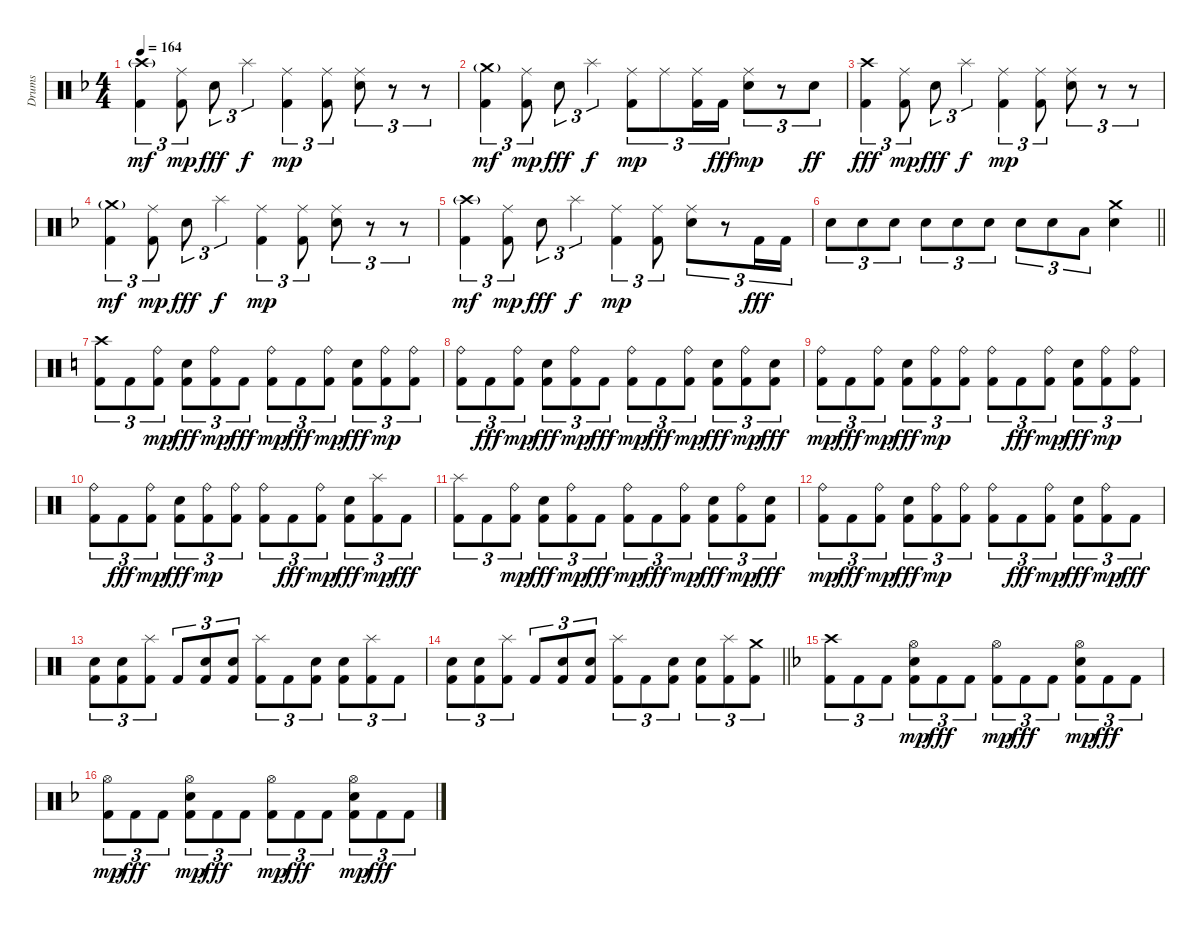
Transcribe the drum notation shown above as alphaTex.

\track ("Drums" "Drums") {instrument percussion}
\staff {score}
\articulation defaults
\ts (4 4)
\tempo 164
\clef neutral
\ks f
("Kick (hit) 2" "Crash high (hit)"{g}).4{tu (3 2) dy mf} ("Kick (hit) 2" "Ride (middle)").8{tu (3 2) dy mp} "Electric Snare (hit)".8{tu (3 2) dy fff} "Splash (hit)".4{tu (3 2) dy f} ("Kick (hit) 2" "Ride (middle)").4{tu (3 2) dy mp} ("Kick (hit) 2" "Ride (middle)").8{tu (3 2)} ("Electric Snare (hit)" "Ride (middle)").8{tu (3 2)} r.8{tu (3 2)} r.8{tu (3 2)} |
("Kick (hit) 2" "Crash medium (hit)"{g}).4{tu (3 2) dy mf} ("Kick (hit) 2" "Ride (middle)").8{tu (3 2) dy mp} "Electric Snare (hit)".8{tu (3 2) dy fff} "Splash (hit)".4{tu (3 2) dy f} ("Kick (hit) 2" "Ride (middle)").8{tu (3 2) dy mp} "Ride (middle)".8{tu (3 2)} ("Kick (hit) 2" "Ride (middle)").16{tu (3 2)} "Kick (hit) 2".16{tu (3 2) dy fff} ("Electric Snare (hit)" "Ride (middle)").8{tu (3 2) dy mp} r.8{tu (3 2)} "Electric Snare (hit)".8{tu (3 2) dy ff} |
("Kick (hit) 2" "Crash high (hit)").4{tu (3 2) dy fff} ("Kick (hit) 2" "Ride (middle)").8{tu (3 2) dy mp} "Electric Snare (hit)".8{tu (3 2) dy fff} "Splash (hit)".4{tu (3 2) dy f} ("Kick (hit) 2" "Ride (middle)").4{tu (3 2) dy mp} ("Kick (hit) 2" "Ride (middle)").8{tu (3 2)} ("Electric Snare (hit)" "Ride (middle)").8{tu (3 2)} r.8{tu (3 2)} r.8{tu (3 2)} |
("Kick (hit) 2" "Crash medium (hit)"{g}).4{tu (3 2) dy mf} ("Kick (hit) 2" "Ride (middle)").8{tu (3 2) dy mp} "Electric Snare (hit)".8{tu (3 2) dy fff} "Splash (hit)".4{tu (3 2) dy f} ("Kick (hit) 2" "Ride (middle)").4{tu (3 2) dy mp} ("Kick (hit) 2" "Ride (middle)").8{tu (3 2)} ("Electric Snare (hit)" "Ride (middle)").8{tu (3 2)} r.8{tu (3 2)} r.8{tu (3 2)} |
("Kick (hit) 2" "Crash high (hit)"{g}).4{tu (3 2) dy mf} ("Kick (hit) 2" "Ride (middle)").8{tu (3 2) dy mp} "Electric Snare (hit)".8{tu (3 2) dy fff} "Splash (hit)".4{tu (3 2) dy f} ("Kick (hit) 2" "Ride (middle)").4{tu (3 2) dy mp} ("Kick (hit) 2" "Ride (middle)").8{tu (3 2)} ("Electric Snare (hit)" "Ride (middle)").8{tu (3 2)} r.8{tu (3 2)} "Kick (hit) 2".16{tu (3 2) dy fff} "Kick (hit) 2".16{tu (3 2)} |
\barLineRight lightlight "Electric Snare (hit)".8{tu (3 2)} "Electric Snare (hit)".8{tu (3 2)} "Electric Snare (hit)".8{tu (3 2)} "Electric Snare (hit)".8{tu (3 2)} "Electric Snare (hit)".8{tu (3 2)} "Electric Snare (hit)".8{tu (3 2)} "Electric Snare (hit)".8{tu (3 2)} "Electric Snare (hit)".8{tu (3 2)} "Low Tom (hit)".8{tu (3 2)}
("Electric Snare (hit)" "Crash medium (hit)").4 |
\ks c
("Kick (hit) 2" "Crash high (hit)").8{tu (3 2)} "Kick (hit) 2".8{tu (3 2)} ("Kick (hit) 2" "Ride (bell)").8{tu (3 2) dy mp} ("Kick (hit) 2" "Electric Snare (hit)").8{tu (3 2) dy fff} ("Kick (hit) 2" "Ride (bell)").8{tu (3 2) dy mp} "Kick (hit) 2".8{tu (3 2) dy fff} ("Kick (hit) 2" "Ride (bell)").8{tu (3 2) dy mp} "Kick (hit) 2".8{tu (3 2) dy fff} ("Kick (hit) 2" "Ride (bell)").8{tu (3 2) dy mp} ("Kick (hit) 2" "Electric Snare (hit)").8{tu (3 2) dy fff} ("Kick (hit) 2" "Ride (bell)").8{tu (3 2) dy mp} ("Kick (hit) 2" "Ride (bell)").8{tu (3 2)} |
("Kick (hit) 2" "Ride (bell)").8{tu (3 2)} "Kick (hit) 2".8{tu (3 2) dy fff} ("Kick (hit) 2" "Ride (bell)").8{tu (3 2) dy mp} ("Kick (hit) 2" "Electric Snare (hit)").8{tu (3 2) dy fff} ("Kick (hit) 2" "Ride (bell)").8{tu (3 2) dy mp} "Kick (hit) 2".8{tu (3 2) dy fff} ("Kick (hit) 2" "Ride (bell)").8{tu (3 2) dy mp} "Kick (hit) 2".8{tu (3 2) dy fff} ("Kick (hit) 2" "Ride (bell)").8{tu (3 2) dy mp} ("Kick (hit) 2" "Electric Snare (hit)").8{tu (3 2) dy fff} ("Kick (hit) 2" "Ride (bell)").8{tu (3 2) dy mp} ("Kick (hit) 2" "Electric Snare (hit)").8{tu (3 2) dy fff} |
("Kick (hit) 2" "Ride (bell)").8{tu (3 2) dy mp} "Kick (hit) 2".8{tu (3 2) dy fff} ("Kick (hit) 2" "Ride (bell)").8{tu (3 2) dy mp} ("Kick (hit) 2" "Electric Snare (hit)").8{tu (3 2) dy fff} ("Kick (hit) 2" "Ride (bell)").8{tu (3 2) dy mp} ("Kick (hit) 2" "Ride (bell)").8{tu (3 2)} ("Kick (hit) 2" "Ride (bell)").8{tu (3 2)} "Kick (hit) 2".8{tu (3 2) dy fff} ("Kick (hit) 2" "Ride (bell)").8{tu (3 2) dy mp} ("Kick (hit) 2" "Electric Snare (hit)").8{tu (3 2) dy fff} ("Kick (hit) 2" "Ride (bell)").8{tu (3 2) dy mp} ("Kick (hit) 2" "Ride (bell)").8{tu (3 2)} |
("Kick (hit) 2" "Ride (bell)").8{tu (3 2)} "Kick (hit) 2".8{tu (3 2) dy fff} ("Kick (hit) 2" "Ride (bell)").8{tu (3 2) dy mp} ("Kick (hit) 2" "Electric Snare (hit)").8{tu (3 2) dy fff} ("Kick (hit) 2" "Ride (bell)").8{tu (3 2) dy mp} ("Kick (hit) 2" "Ride (bell)").8{tu (3 2)} ("Kick (hit) 2" "Ride (bell)").8{tu (3 2)} "Kick (hit) 2".8{tu (3 2) dy fff} ("Kick (hit) 2" "Ride (bell)").8{tu (3 2) dy mp} ("Kick (hit) 2" "Electric Snare (hit)").8{tu (3 2) dy fff} ("Kick (hit) 2" "Splash (hit)").8{tu (3 2) dy mp} "Kick (hit) 2".8{tu (3 2) dy fff} |
("Kick (hit) 2" "Splash (hit)").8{tu (3 2)} "Kick (hit) 2".8{tu (3 2)} ("Kick (hit) 2" "Ride (bell)").8{tu (3 2) dy mp} ("Kick (hit) 2" "Electric Snare (hit)").8{tu (3 2) dy fff} ("Kick (hit) 2" "Ride (bell)").8{tu (3 2) dy mp} "Kick (hit) 2".8{tu (3 2) dy fff} ("Kick (hit) 2" "Ride (bell)").8{tu (3 2) dy mp} "Kick (hit) 2".8{tu (3 2) dy fff} ("Kick (hit) 2" "Ride (bell)").8{tu (3 2) dy mp} ("Kick (hit) 2" "Electric Snare (hit)").8{tu (3 2) dy fff} ("Kick (hit) 2" "Ride (bell)").8{tu (3 2) dy mp} ("Kick (hit) 2" "Electric Snare (hit)").8{tu (3 2) dy fff} |
("Kick (hit) 2" "Ride (bell)").8{tu (3 2) dy mp} "Kick (hit) 2".8{tu (3 2) dy fff} ("Kick (hit) 2" "Ride (bell)").8{tu (3 2) dy mp} ("Kick (hit) 2" "Electric Snare (hit)").8{tu (3 2) dy fff} ("Kick (hit) 2" "Ride (bell)").8{tu (3 2) dy mp} ("Kick (hit) 2" "Ride (bell)").8{tu (3 2)} ("Kick (hit) 2" "Ride (bell)").8{tu (3 2)} "Kick (hit) 2".8{tu (3 2) dy fff} ("Kick (hit) 2" "Ride (bell)").8{tu (3 2) dy mp} ("Kick (hit) 2" "Electric Snare (hit)").8{tu (3 2) dy fff} ("Kick (hit) 2" "Ride (bell)").8{tu (3 2) dy mp} "Kick (hit) 2".8{tu (3 2) dy fff} |
("Kick (hit) 2" "Electric Snare (hit)").8{tu (3 2)} ("Kick (hit) 2" "Electric Snare (hit)").8{tu (3 2)} ("Kick (hit) 2" "Splash (hit)").8{tu (3 2)} "Kick (hit) 2".8{tu (3 2)} ("Kick (hit) 2" "Electric Snare (hit)").8{tu (3 2)} ("Kick (hit) 2" "Electric Snare (hit)").8{tu (3 2)} ("Kick (hit) 2" "Splash (hit)").8{tu (3 2)} "Kick (hit) 2".8{tu (3 2)} ("Kick (hit) 2" "Electric Snare (hit)").8{tu (3 2)} ("Kick (hit) 2" "Electric Snare (hit)").8{tu (3 2)} ("Kick (hit) 2" "Splash (hit)").8{tu (3 2)} "Kick (hit) 2".8{tu (3 2)} |
\barLineRight lightlight
("Kick (hit) 2" "Electric Snare (hit)").8{tu (3 2)} ("Kick (hit) 2" "Electric Snare (hit)").8{tu (3 2)} ("Kick (hit) 2" "Splash (hit)").8{tu (3 2)} "Kick (hit) 2".8{tu (3 2)} ("Kick (hit) 2" "Electric Snare (hit)").8{tu (3 2)} ("Kick (hit) 2" "Electric Snare (hit)").8{tu (3 2)} ("Kick (hit) 2" "Splash (hit)").8{tu (3 2)} "Kick (hit) 2".8{tu (3 2)} ("Kick (hit) 2" "Electric Snare (hit)").8{tu (3 2)} ("Kick (hit) 2" "Electric Snare (hit)").8{tu (3 2)} ("Kick (hit) 2" "Splash (hit)").8{tu (3 2)} ("Kick (hit) 2" "Crash medium (hit)").8{tu (3 2)} |
\ks f
("Kick (hit) 2" "Crash high (hit)").8{tu (3 2)} "Kick (hit) 2".8{tu (3 2)} "Kick (hit) 2".8{tu (3 2)} ("Kick (hit) 2" "Electric Snare (hit)" "Hi-Hat (open)").8{tu (3 2) dy mp} "Kick (hit) 2".8{tu (3 2) dy fff} "Kick (hit) 2".8{tu (3 2)} ("Kick (hit) 2" "Hi-Hat (open)").8{tu (3 2) dy mp} "Kick (hit) 2".8{tu (3 2) dy fff} "Kick (hit) 2".8{tu (3 2)} ("Kick (hit) 2" "Electric Snare (hit)" "Hi-Hat (open)").8{tu (3 2) dy mp} "Kick (hit) 2".8{tu (3 2) dy fff} "Kick (hit) 2".8{tu (3 2)} |
("Kick (hit) 2" "Hi-Hat (open)").8{tu (3 2) dy mp} "Kick (hit) 2".8{tu (3 2) dy fff} "Kick (hit) 2".8{tu (3 2)} ("Kick (hit) 2" "Electric Snare (hit)" "Hi-Hat (open)").8{tu (3 2) dy mp} "Kick (hit) 2".8{tu (3 2) dy fff} "Kick (hit) 2".8{tu (3 2)} ("Kick (hit) 2" "Hi-Hat (open)").8{tu (3 2) dy mp} "Kick (hit) 2".8{tu (3 2) dy fff} "Kick (hit) 2".8{tu (3 2)} ("Kick (hit) 2" "Electric Snare (hit)" "Hi-Hat (open)").8{tu (3 2) dy mp} "Kick (hit) 2".8{tu (3 2) dy fff} "Kick (hit) 2".8{tu (3 2)}
